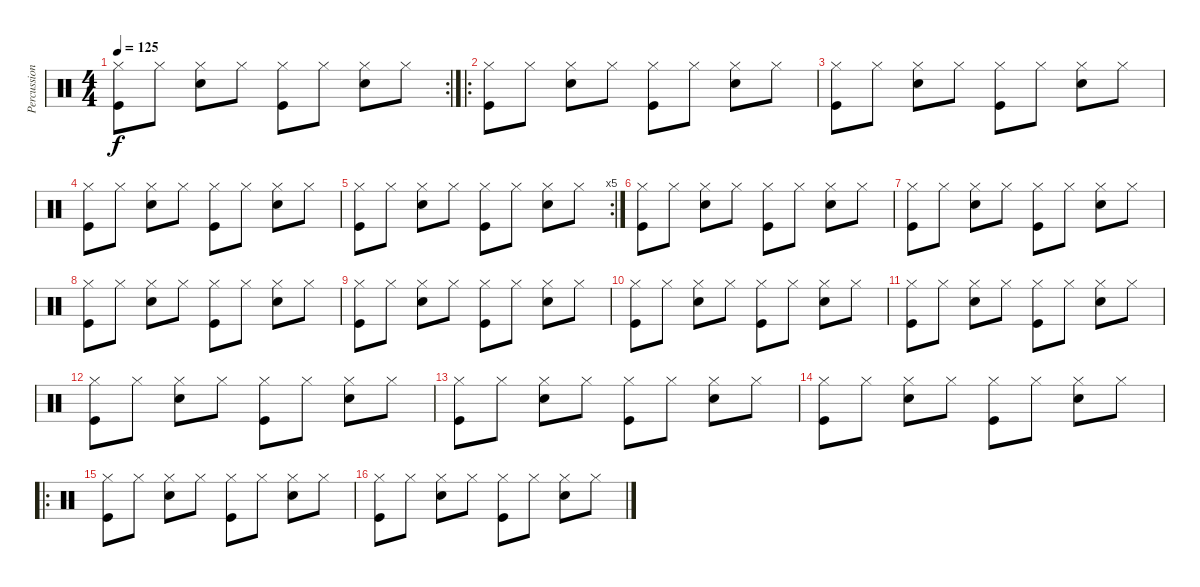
\track ("Percussion" "Percussion") {instrument percussion}
\staff {score}
\articulation defaults
\rc 2
\ts (4 4)
\tempo 125
\clef neutral
\ks c
("Hi-Hat (closed)" "Kick (hit)").8{dy f} "Hi-Hat (closed)".8 ("Hi-Hat (closed)" "Snare (hit) 2").8 "Hi-Hat (closed)".8 ("Hi-Hat (closed)" "Kick (hit)").8 "Hi-Hat (closed)".8 ("Hi-Hat (closed)" "Snare (hit) 2").8 "Hi-Hat (closed)".8 |
\ro
("Hi-Hat (closed)" "Kick (hit)").8 "Hi-Hat (closed)".8 ("Hi-Hat (closed)" "Snare (hit) 2").8 "Hi-Hat (closed)".8 ("Hi-Hat (closed)" "Kick (hit)").8 "Hi-Hat (closed)".8 ("Hi-Hat (closed)" "Snare (hit) 2").8 "Hi-Hat (closed)".8 |
("Hi-Hat (closed)" "Kick (hit)").8 "Hi-Hat (closed)".8 ("Hi-Hat (closed)" "Snare (hit) 2").8 "Hi-Hat (closed)".8 ("Hi-Hat (closed)" "Kick (hit)").8 "Hi-Hat (closed)".8 ("Hi-Hat (closed)" "Snare (hit) 2").8 "Hi-Hat (closed)".8 |
("Hi-Hat (closed)" "Kick (hit)").8 "Hi-Hat (closed)".8 ("Hi-Hat (closed)" "Snare (hit) 2").8 "Hi-Hat (closed)".8 ("Hi-Hat (closed)" "Kick (hit)").8 "Hi-Hat (closed)".8 ("Hi-Hat (closed)" "Snare (hit) 2").8 "Hi-Hat (closed)".8 |
\rc 5
("Hi-Hat (closed)" "Kick (hit)").8 "Hi-Hat (closed)".8 ("Hi-Hat (closed)" "Snare (hit) 2").8 "Hi-Hat (closed)".8 ("Hi-Hat (closed)" "Kick (hit)").8 "Hi-Hat (closed)".8 ("Hi-Hat (closed)" "Snare (hit) 2").8 "Hi-Hat (closed)".8 |
("Hi-Hat (closed)" "Kick (hit)").8 "Hi-Hat (closed)".8 ("Hi-Hat (closed)" "Snare (hit) 2").8 "Hi-Hat (closed)".8 ("Hi-Hat (closed)" "Kick (hit)").8 "Hi-Hat (closed)".8 ("Hi-Hat (closed)" "Snare (hit) 2").8 "Hi-Hat (closed)".8 |
("Hi-Hat (closed)" "Kick (hit)").8 "Hi-Hat (closed)".8 ("Hi-Hat (closed)" "Snare (hit) 2").8 "Hi-Hat (closed)".8 ("Hi-Hat (closed)" "Kick (hit)").8 "Hi-Hat (closed)".8 ("Hi-Hat (closed)" "Snare (hit) 2").8 "Hi-Hat (closed)".8 |
("Hi-Hat (closed)" "Kick (hit)").8 "Hi-Hat (closed)".8 ("Hi-Hat (closed)" "Snare (hit) 2").8 "Hi-Hat (closed)".8 ("Hi-Hat (closed)" "Kick (hit)").8 "Hi-Hat (closed)".8 ("Hi-Hat (closed)" "Snare (hit) 2").8 "Hi-Hat (closed)".8 |
("Hi-Hat (closed)" "Kick (hit)").8 "Hi-Hat (closed)".8 ("Hi-Hat (closed)" "Snare (hit) 2").8 "Hi-Hat (closed)".8 ("Hi-Hat (closed)" "Kick (hit)").8 "Hi-Hat (closed)".8 ("Hi-Hat (closed)" "Snare (hit) 2").8 "Hi-Hat (closed)".8 |
("Hi-Hat (closed)" "Kick (hit)").8 "Hi-Hat (closed)".8 ("Hi-Hat (closed)" "Snare (hit) 2").8 "Hi-Hat (closed)".8 ("Hi-Hat (closed)" "Kick (hit)").8 "Hi-Hat (closed)".8 ("Hi-Hat (closed)" "Snare (hit) 2").8 "Hi-Hat (closed)".8 |
("Hi-Hat (closed)" "Kick (hit)").8 "Hi-Hat (closed)".8 ("Hi-Hat (closed)" "Snare (hit) 2").8 "Hi-Hat (closed)".8 ("Hi-Hat (closed)" "Kick (hit)").8 "Hi-Hat (closed)".8 ("Hi-Hat (closed)" "Snare (hit) 2").8 "Hi-Hat (closed)".8 |
("Hi-Hat (closed)" "Kick (hit)").8 "Hi-Hat (closed)".8 ("Hi-Hat (closed)" "Snare (hit) 2").8 "Hi-Hat (closed)".8 ("Hi-Hat (closed)" "Kick (hit)").8 "Hi-Hat (closed)".8 ("Hi-Hat (closed)" "Snare (hit) 2").8 "Hi-Hat (closed)".8 |
("Hi-Hat (closed)" "Kick (hit)").8 "Hi-Hat (closed)".8 ("Hi-Hat (closed)" "Snare (hit) 2").8 "Hi-Hat (closed)".8 ("Hi-Hat (closed)" "Kick (hit)").8 "Hi-Hat (closed)".8 ("Hi-Hat (closed)" "Snare (hit) 2").8 "Hi-Hat (closed)".8 |
("Hi-Hat (closed)" "Kick (hit)").8 "Hi-Hat (closed)".8 ("Hi-Hat (closed)" "Snare (hit) 2").8 "Hi-Hat (closed)".8 ("Hi-Hat (closed)" "Kick (hit)").8 "Hi-Hat (closed)".8 ("Hi-Hat (closed)" "Snare (hit) 2").8 "Hi-Hat (closed)".8 |
\ro
("Hi-Hat (closed)" "Kick (hit)").8 "Hi-Hat (closed)".8 ("Hi-Hat (closed)" "Snare (hit) 2").8 "Hi-Hat (closed)".8 ("Hi-Hat (closed)" "Kick (hit)").8 "Hi-Hat (closed)".8 ("Hi-Hat (closed)" "Snare (hit) 2").8 "Hi-Hat (closed)".8 |
("Hi-Hat (closed)" "Kick (hit)").8 "Hi-Hat (closed)".8 ("Hi-Hat (closed)" "Snare (hit) 2").8 "Hi-Hat (closed)".8 ("Hi-Hat (closed)" "Kick (hit)").8 "Hi-Hat (closed)".8 ("Hi-Hat (closed)" "Snare (hit) 2").8 "Hi-Hat (closed)".8
